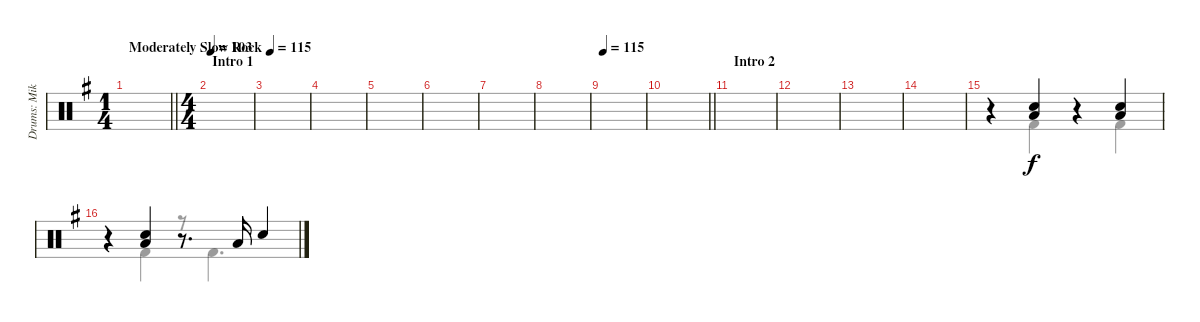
\track ("Drums: Mikkey" "Drums: Mik") {instrument percussion}
\staff {score}
\articulation defaults
\voice
\ts (1 4)
\tempo (115 "Moderately Slow Rock")
\clef neutral
\barLineRight lightlight
\ks g
|
\ts (4 4)
\section ("" "Intro 1")
\tempo 103
|
|
|
|
|
|
|
\tempo 115
|
\barLineRight lightlight
|
\section ("" "Intro 2")
|
|
|
|
r.4 ("Snare (hit) 2" "Low Tom (hit)").4 r.4 ("Snare (hit) 2" "Low Tom (hit)").4 |
r.4 ("Snare (hit) 2" "Low Tom (hit)").4 r.8{d} "Low Tom (hit)".16 "Snare (hit) 2".4
\voice
\clef neutral
\ottava regular
\simile none
\barLineRight lightlight
\ks g
|
|
|
|
|
|
|
|
|
\barLineRight lightlight
|
|
|
|
|
r.4 "Kick (hit) 2".4 r.4 "Kick (hit) 2".4 |
r.4 "Kick (hit) 2".4 r.8 "Kick (hit) 2".4{d}
